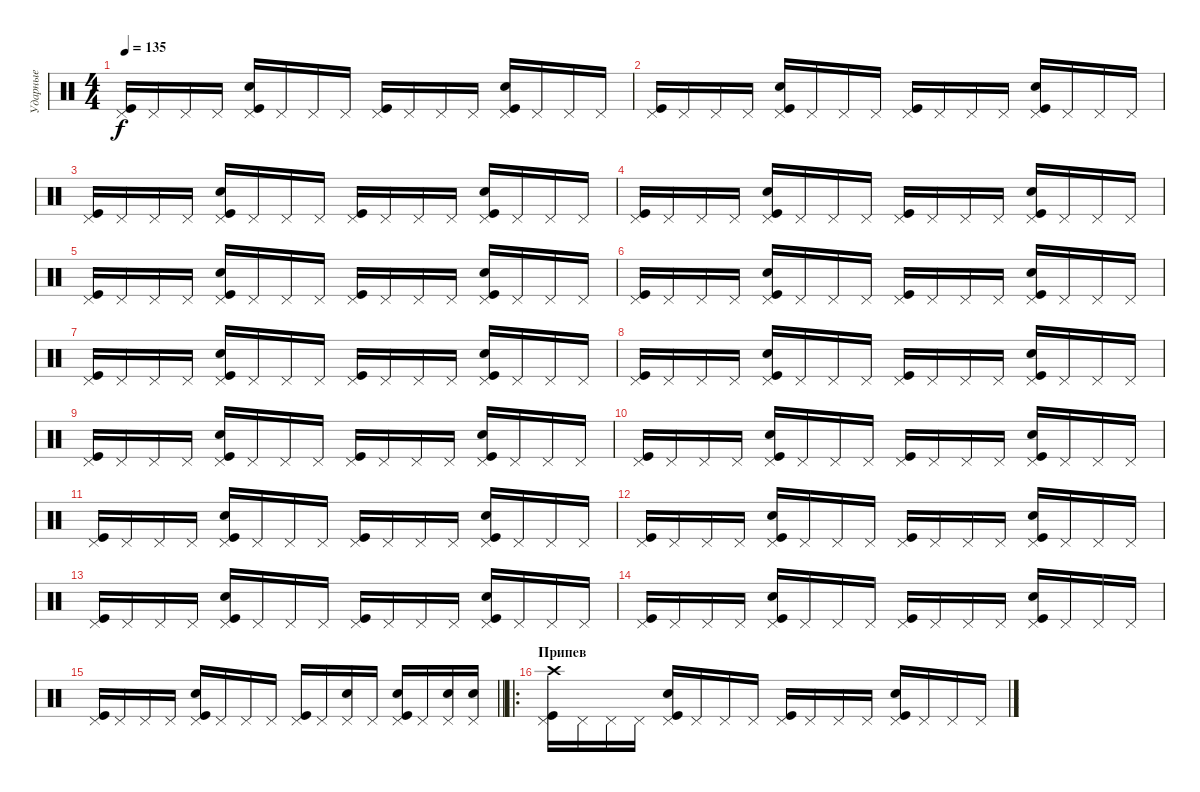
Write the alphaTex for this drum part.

\track ("Ударные" "Ударные") {instrument percussion}
\staff {score}
\articulation defaults
\ts (4 4)
\tempo 135
\clef neutral
\ks c
("Kick (hit)" "Pedal Hi-Hat (hit)").16{dy f} "Pedal Hi-Hat (hit)".16 "Pedal Hi-Hat (hit)".16 "Pedal Hi-Hat (hit)".16 ("Kick (hit)" "Pedal Hi-Hat (hit)" "Snare (hit) 2").16 "Pedal Hi-Hat (hit)".16 "Pedal Hi-Hat (hit)".16 "Pedal Hi-Hat (hit)".16 ("Kick (hit)" "Pedal Hi-Hat (hit)").16 "Pedal Hi-Hat (hit)".16 "Pedal Hi-Hat (hit)".16 "Pedal Hi-Hat (hit)".16 ("Kick (hit)" "Pedal Hi-Hat (hit)" "Snare (hit) 2").16 "Pedal Hi-Hat (hit)".16 "Pedal Hi-Hat (hit)".16 "Pedal Hi-Hat (hit)".16 |
("Kick (hit)" "Pedal Hi-Hat (hit)").16 "Pedal Hi-Hat (hit)".16 "Pedal Hi-Hat (hit)".16 "Pedal Hi-Hat (hit)".16 ("Kick (hit)" "Pedal Hi-Hat (hit)" "Snare (hit) 2").16 "Pedal Hi-Hat (hit)".16 "Pedal Hi-Hat (hit)".16 "Pedal Hi-Hat (hit)".16 ("Kick (hit)" "Pedal Hi-Hat (hit)").16 "Pedal Hi-Hat (hit)".16 "Pedal Hi-Hat (hit)".16 "Pedal Hi-Hat (hit)".16 ("Kick (hit)" "Pedal Hi-Hat (hit)" "Snare (hit) 2").16 "Pedal Hi-Hat (hit)".16 "Pedal Hi-Hat (hit)".16 "Pedal Hi-Hat (hit)".16 |
("Kick (hit)" "Pedal Hi-Hat (hit)").16 "Pedal Hi-Hat (hit)".16 "Pedal Hi-Hat (hit)".16 "Pedal Hi-Hat (hit)".16 ("Kick (hit)" "Pedal Hi-Hat (hit)" "Snare (hit) 2").16 "Pedal Hi-Hat (hit)".16 "Pedal Hi-Hat (hit)".16 "Pedal Hi-Hat (hit)".16 ("Kick (hit)" "Pedal Hi-Hat (hit)").16 "Pedal Hi-Hat (hit)".16 "Pedal Hi-Hat (hit)".16 "Pedal Hi-Hat (hit)".16 ("Kick (hit)" "Pedal Hi-Hat (hit)" "Snare (hit) 2").16 "Pedal Hi-Hat (hit)".16 "Pedal Hi-Hat (hit)".16 "Pedal Hi-Hat (hit)".16 |
("Kick (hit)" "Pedal Hi-Hat (hit)").16 "Pedal Hi-Hat (hit)".16 "Pedal Hi-Hat (hit)".16 "Pedal Hi-Hat (hit)".16 ("Kick (hit)" "Pedal Hi-Hat (hit)" "Snare (hit) 2").16 "Pedal Hi-Hat (hit)".16 "Pedal Hi-Hat (hit)".16 "Pedal Hi-Hat (hit)".16 ("Kick (hit)" "Pedal Hi-Hat (hit)").16 "Pedal Hi-Hat (hit)".16 "Pedal Hi-Hat (hit)".16 "Pedal Hi-Hat (hit)".16 ("Kick (hit)" "Pedal Hi-Hat (hit)" "Snare (hit) 2").16 "Pedal Hi-Hat (hit)".16 "Pedal Hi-Hat (hit)".16 "Pedal Hi-Hat (hit)".16 |
("Kick (hit)" "Pedal Hi-Hat (hit)").16 "Pedal Hi-Hat (hit)".16 "Pedal Hi-Hat (hit)".16 "Pedal Hi-Hat (hit)".16 ("Kick (hit)" "Pedal Hi-Hat (hit)" "Snare (hit) 2").16 "Pedal Hi-Hat (hit)".16 "Pedal Hi-Hat (hit)".16 "Pedal Hi-Hat (hit)".16 ("Kick (hit)" "Pedal Hi-Hat (hit)").16 "Pedal Hi-Hat (hit)".16 "Pedal Hi-Hat (hit)".16 "Pedal Hi-Hat (hit)".16 ("Kick (hit)" "Pedal Hi-Hat (hit)" "Snare (hit) 2").16 "Pedal Hi-Hat (hit)".16 "Pedal Hi-Hat (hit)".16 "Pedal Hi-Hat (hit)".16 |
("Kick (hit)" "Pedal Hi-Hat (hit)").16 "Pedal Hi-Hat (hit)".16 "Pedal Hi-Hat (hit)".16 "Pedal Hi-Hat (hit)".16 ("Kick (hit)" "Pedal Hi-Hat (hit)" "Snare (hit) 2").16 "Pedal Hi-Hat (hit)".16 "Pedal Hi-Hat (hit)".16 "Pedal Hi-Hat (hit)".16 ("Kick (hit)" "Pedal Hi-Hat (hit)").16 "Pedal Hi-Hat (hit)".16 "Pedal Hi-Hat (hit)".16 "Pedal Hi-Hat (hit)".16 ("Kick (hit)" "Pedal Hi-Hat (hit)" "Snare (hit) 2").16 "Pedal Hi-Hat (hit)".16 "Pedal Hi-Hat (hit)".16 "Pedal Hi-Hat (hit)".16 |
("Kick (hit)" "Pedal Hi-Hat (hit)").16 "Pedal Hi-Hat (hit)".16 "Pedal Hi-Hat (hit)".16 "Pedal Hi-Hat (hit)".16 ("Kick (hit)" "Pedal Hi-Hat (hit)" "Snare (hit) 2").16 "Pedal Hi-Hat (hit)".16 "Pedal Hi-Hat (hit)".16 "Pedal Hi-Hat (hit)".16 ("Kick (hit)" "Pedal Hi-Hat (hit)").16 "Pedal Hi-Hat (hit)".16 "Pedal Hi-Hat (hit)".16 "Pedal Hi-Hat (hit)".16 ("Kick (hit)" "Pedal Hi-Hat (hit)" "Snare (hit) 2").16 "Pedal Hi-Hat (hit)".16 "Pedal Hi-Hat (hit)".16 "Pedal Hi-Hat (hit)".16 |
("Kick (hit)" "Pedal Hi-Hat (hit)").16 "Pedal Hi-Hat (hit)".16 "Pedal Hi-Hat (hit)".16 "Pedal Hi-Hat (hit)".16 ("Kick (hit)" "Pedal Hi-Hat (hit)" "Snare (hit) 2").16 "Pedal Hi-Hat (hit)".16 "Pedal Hi-Hat (hit)".16 "Pedal Hi-Hat (hit)".16 ("Kick (hit)" "Pedal Hi-Hat (hit)").16 "Pedal Hi-Hat (hit)".16 "Pedal Hi-Hat (hit)".16 "Pedal Hi-Hat (hit)".16 ("Kick (hit)" "Pedal Hi-Hat (hit)" "Snare (hit) 2").16 "Pedal Hi-Hat (hit)".16 "Pedal Hi-Hat (hit)".16 "Pedal Hi-Hat (hit)".16 |
("Kick (hit)" "Pedal Hi-Hat (hit)").16 "Pedal Hi-Hat (hit)".16 "Pedal Hi-Hat (hit)".16 "Pedal Hi-Hat (hit)".16 ("Kick (hit)" "Pedal Hi-Hat (hit)" "Snare (hit) 2").16 "Pedal Hi-Hat (hit)".16 "Pedal Hi-Hat (hit)".16 "Pedal Hi-Hat (hit)".16 ("Kick (hit)" "Pedal Hi-Hat (hit)").16 "Pedal Hi-Hat (hit)".16 "Pedal Hi-Hat (hit)".16 "Pedal Hi-Hat (hit)".16 ("Kick (hit)" "Pedal Hi-Hat (hit)" "Snare (hit) 2").16 "Pedal Hi-Hat (hit)".16 "Pedal Hi-Hat (hit)".16 "Pedal Hi-Hat (hit)".16 |
("Kick (hit)" "Pedal Hi-Hat (hit)").16 "Pedal Hi-Hat (hit)".16 "Pedal Hi-Hat (hit)".16 "Pedal Hi-Hat (hit)".16 ("Kick (hit)" "Pedal Hi-Hat (hit)" "Snare (hit) 2").16 "Pedal Hi-Hat (hit)".16 "Pedal Hi-Hat (hit)".16 "Pedal Hi-Hat (hit)".16 ("Kick (hit)" "Pedal Hi-Hat (hit)").16 "Pedal Hi-Hat (hit)".16 "Pedal Hi-Hat (hit)".16 "Pedal Hi-Hat (hit)".16 ("Kick (hit)" "Pedal Hi-Hat (hit)" "Snare (hit) 2").16 "Pedal Hi-Hat (hit)".16 "Pedal Hi-Hat (hit)".16 "Pedal Hi-Hat (hit)".16 |
("Kick (hit)" "Pedal Hi-Hat (hit)").16 "Pedal Hi-Hat (hit)".16 "Pedal Hi-Hat (hit)".16 "Pedal Hi-Hat (hit)".16 ("Kick (hit)" "Pedal Hi-Hat (hit)" "Snare (hit) 2").16 "Pedal Hi-Hat (hit)".16 "Pedal Hi-Hat (hit)".16 "Pedal Hi-Hat (hit)".16 ("Kick (hit)" "Pedal Hi-Hat (hit)").16 "Pedal Hi-Hat (hit)".16 "Pedal Hi-Hat (hit)".16 "Pedal Hi-Hat (hit)".16 ("Kick (hit)" "Pedal Hi-Hat (hit)" "Snare (hit) 2").16 "Pedal Hi-Hat (hit)".16 "Pedal Hi-Hat (hit)".16 "Pedal Hi-Hat (hit)".16 |
("Kick (hit)" "Pedal Hi-Hat (hit)").16 "Pedal Hi-Hat (hit)".16 "Pedal Hi-Hat (hit)".16 "Pedal Hi-Hat (hit)".16 ("Kick (hit)" "Pedal Hi-Hat (hit)" "Snare (hit) 2").16 "Pedal Hi-Hat (hit)".16 "Pedal Hi-Hat (hit)".16 "Pedal Hi-Hat (hit)".16 ("Kick (hit)" "Pedal Hi-Hat (hit)").16 "Pedal Hi-Hat (hit)".16 "Pedal Hi-Hat (hit)".16 "Pedal Hi-Hat (hit)".16 ("Kick (hit)" "Pedal Hi-Hat (hit)" "Snare (hit) 2").16 "Pedal Hi-Hat (hit)".16 "Pedal Hi-Hat (hit)".16 "Pedal Hi-Hat (hit)".16 |
("Kick (hit)" "Pedal Hi-Hat (hit)").16 "Pedal Hi-Hat (hit)".16 "Pedal Hi-Hat (hit)".16 "Pedal Hi-Hat (hit)".16 ("Kick (hit)" "Pedal Hi-Hat (hit)" "Snare (hit) 2").16 "Pedal Hi-Hat (hit)".16 "Pedal Hi-Hat (hit)".16 "Pedal Hi-Hat (hit)".16 ("Kick (hit)" "Pedal Hi-Hat (hit)").16 "Pedal Hi-Hat (hit)".16 "Pedal Hi-Hat (hit)".16 "Pedal Hi-Hat (hit)".16 ("Kick (hit)" "Pedal Hi-Hat (hit)" "Snare (hit) 2").16 "Pedal Hi-Hat (hit)".16 "Pedal Hi-Hat (hit)".16 "Pedal Hi-Hat (hit)".16 |
("Kick (hit)" "Pedal Hi-Hat (hit)").16 "Pedal Hi-Hat (hit)".16 "Pedal Hi-Hat (hit)".16 "Pedal Hi-Hat (hit)".16 ("Kick (hit)" "Pedal Hi-Hat (hit)" "Snare (hit) 2").16 "Pedal Hi-Hat (hit)".16 "Pedal Hi-Hat (hit)".16 "Pedal Hi-Hat (hit)".16 ("Kick (hit)" "Pedal Hi-Hat (hit)").16 "Pedal Hi-Hat (hit)".16 "Pedal Hi-Hat (hit)".16 "Pedal Hi-Hat (hit)".16 ("Kick (hit)" "Pedal Hi-Hat (hit)" "Snare (hit) 2").16 "Pedal Hi-Hat (hit)".16 "Pedal Hi-Hat (hit)".16 "Pedal Hi-Hat (hit)".16 |
\barLineRight lightlight
("Kick (hit)" "Pedal Hi-Hat (hit)").16 "Pedal Hi-Hat (hit)".16 "Pedal Hi-Hat (hit)".16 "Pedal Hi-Hat (hit)".16 ("Kick (hit)" "Pedal Hi-Hat (hit)" "Snare (hit) 2").16 "Pedal Hi-Hat (hit)".16 "Pedal Hi-Hat (hit)".16 "Pedal Hi-Hat (hit)".16 ("Kick (hit)" "Pedal Hi-Hat (hit)").16 "Pedal Hi-Hat (hit)".16 ("Pedal Hi-Hat (hit)" "Snare (hit) 2").16 "Pedal Hi-Hat (hit)".16 ("Kick (hit)" "Pedal Hi-Hat (hit)" "Snare (hit) 2").16 "Pedal Hi-Hat (hit)".16 ("Pedal Hi-Hat (hit)" "Snare (hit) 2").16 ("Pedal Hi-Hat (hit)" "Snare (hit) 2").16 |
\ro
\section ("" "Припев")
("Kick (hit)" "Pedal Hi-Hat (hit)" "Crash high (hit)").16 "Pedal Hi-Hat (hit)".16 "Pedal Hi-Hat (hit)".16 "Pedal Hi-Hat (hit)".16 ("Kick (hit)" "Pedal Hi-Hat (hit)" "Snare (hit) 2").16 "Pedal Hi-Hat (hit)".16 "Pedal Hi-Hat (hit)".16 "Pedal Hi-Hat (hit)".16 ("Kick (hit)" "Pedal Hi-Hat (hit)").16 "Pedal Hi-Hat (hit)".16 "Pedal Hi-Hat (hit)".16 "Pedal Hi-Hat (hit)".16 ("Kick (hit)" "Pedal Hi-Hat (hit)" "Snare (hit) 2").16 "Pedal Hi-Hat (hit)".16 "Pedal Hi-Hat (hit)".16 "Pedal Hi-Hat (hit)".16
